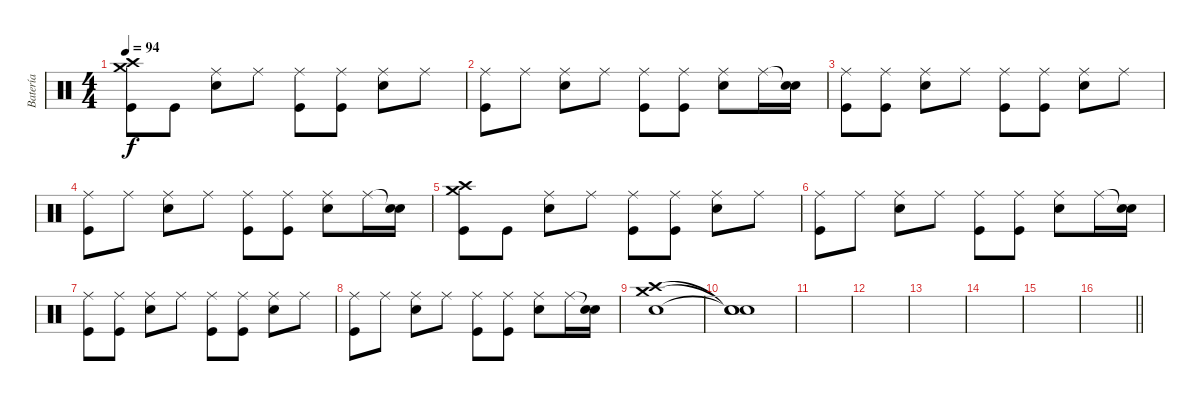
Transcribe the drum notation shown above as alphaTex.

\track ("Batería" "Batería") {instrument percussion}
\staff {score}
\articulation defaults
\ts (4 4)
\tempo 94
\clef neutral
\ks c
("Crash medium (hit)" "Crash high (hit)" "Kick (hit)").8{dy f} "Kick (hit)".8 ("Ride (middle)" "Snare (hit) 2").8 "Ride (middle)".8 ("Ride (middle)" "Kick (hit)").8 ("Ride (middle)" "Kick (hit)").8 ("Ride (middle)" "Snare (hit) 2").8 "Ride (middle)".8 |
("Ride (middle)" "Kick (hit)").8 "Ride (middle)".8 ("Ride (middle)" "Snare (hit) 2").8 "Ride (middle)".8 ("Ride (middle)" "Kick (hit)").8 ("Ride (middle)" "Kick (hit)").8 ("Ride (middle)" "Snare (hit) 2").8 "Ride (middle)".16 ("Snare (hit)"{t} "Snare (hit) 2").16 |
("Ride (middle)" "Kick (hit)").8 ("Ride (middle)" "Kick (hit)").8 ("Ride (middle)" "Snare (hit) 2").8 "Ride (middle)".8 ("Ride (middle)" "Kick (hit)").8 ("Ride (middle)" "Kick (hit)").8 ("Ride (middle)" "Snare (hit) 2").8 "Ride (middle)".8 |
("Ride (middle)" "Kick (hit)").8 "Ride (middle)".8 ("Ride (middle)" "Snare (hit) 2").8 "Ride (middle)".8 ("Ride (middle)" "Kick (hit)").8 ("Ride (middle)" "Kick (hit)").8 ("Ride (middle)" "Snare (hit) 2").8 "Ride (middle)".16 ("Snare (hit)"{t} "Snare (hit) 2").16 |
("Crash medium (hit)" "Crash high (hit)" "Kick (hit)").8 "Kick (hit)".8 ("Ride (middle)" "Snare (hit) 2").8 "Ride (middle)".8 ("Ride (middle)" "Kick (hit)").8 ("Ride (middle)" "Kick (hit)").8 ("Ride (middle)" "Snare (hit) 2").8 "Ride (middle)".8 |
("Ride (middle)" "Kick (hit)").8 "Ride (middle)".8 ("Ride (middle)" "Snare (hit) 2").8 "Ride (middle)".8 ("Ride (middle)" "Kick (hit)").8 ("Ride (middle)" "Kick (hit)").8 ("Ride (middle)" "Snare (hit) 2").8 "Ride (middle)".16 ("Snare (hit)"{t} "Snare (hit) 2").16 |
("Ride (middle)" "Kick (hit)").8 ("Ride (middle)" "Kick (hit)").8 ("Ride (middle)" "Snare (hit) 2").8 "Ride (middle)".8 ("Ride (middle)" "Kick (hit)").8 ("Ride (middle)" "Kick (hit)").8 ("Ride (middle)" "Snare (hit) 2").8 "Ride (middle)".8 |
("Ride (middle)" "Kick (hit)").8 "Ride (middle)".8 ("Ride (middle)" "Snare (hit) 2").8 "Ride (middle)".8 ("Ride (middle)" "Kick (hit)").8 ("Ride (middle)" "Kick (hit)").8 ("Ride (middle)" "Snare (hit) 2").8 "Ride (middle)".16 ("Snare (hit)"{t} "Snare (hit) 2").16 |
("Crash high (hit)" "Crash medium (hit)" "Snare (hit) 2").1 |
("Snare (hit)"{t} "Snare (hit)"{t} "Snare (hit)"{t}).1 |
|
|
|
|
|
\barLineRight lightlight
